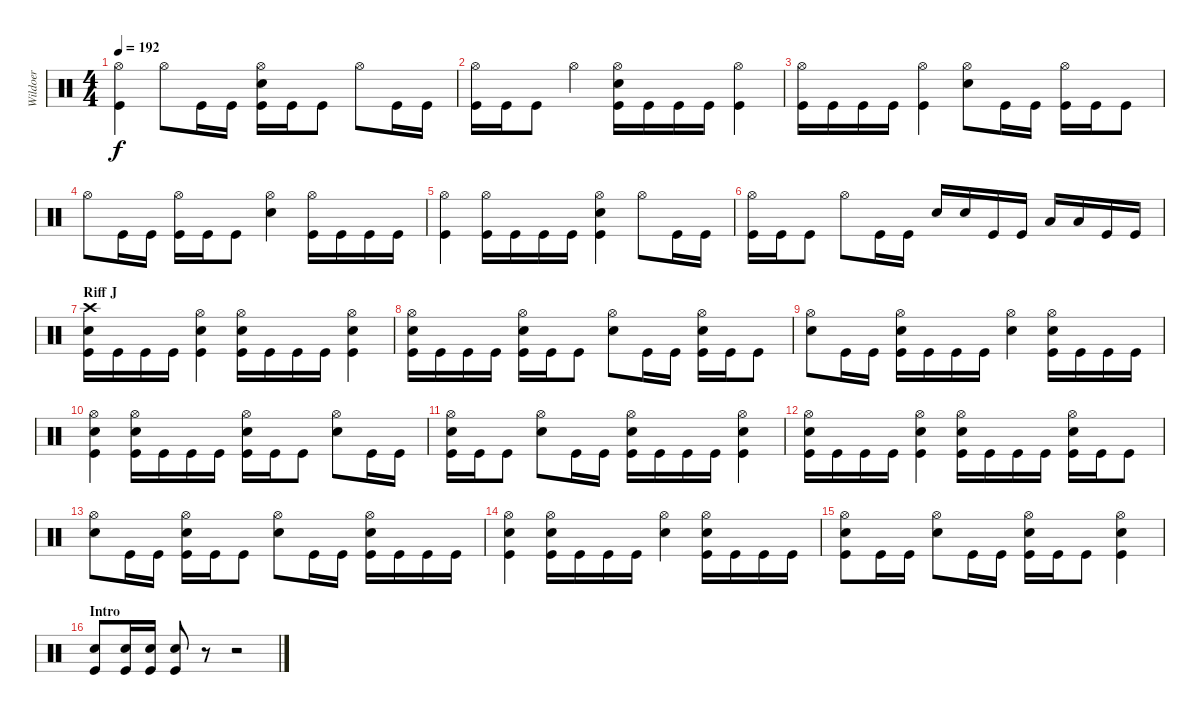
\track ("Wildoer" "Wildoer") {instrument percussion}
\staff {score}
\articulation defaults
\ts (4 4)
\tempo 192
\clef neutral
\ks c
("Hi-Hat (open)" "Kick (hit)").4{dy f} "Hi-Hat (open)".8 "Kick (hit)".16 "Kick (hit)".16 ("Hi-Hat (open)" "Electric Snare (hit)" "Kick (hit)").16 "Kick (hit)".16 "Kick (hit)".8 "Hi-Hat (open)".8 "Kick (hit)".16 "Kick (hit)".16 |
("Hi-Hat (open)" "Kick (hit)").16 "Kick (hit)".16 "Kick (hit)".8 "Hi-Hat (open)".4 ("Hi-Hat (open)" "Electric Snare (hit)" "Kick (hit)").16 "Kick (hit)".16 "Kick (hit)".16 "Kick (hit)".16 ("Hi-Hat (open)" "Kick (hit)").4 |
("Hi-Hat (open)" "Kick (hit)").16 "Kick (hit)".16 "Kick (hit)".16 "Kick (hit)".16 ("Hi-Hat (open)" "Kick (hit)").4 ("Hi-Hat (open)" "Electric Snare (hit)").8 "Kick (hit)".16 "Kick (hit)".16 ("Hi-Hat (open)" "Kick (hit)").16 "Kick (hit)".16 "Kick (hit)".8 |
"Hi-Hat (open)".8 "Kick (hit)".16 "Kick (hit)".16 ("Hi-Hat (open)" "Kick (hit)").16 "Kick (hit)".16 "Kick (hit)".8 ("Hi-Hat (open)" "Electric Snare (hit)").4 ("Hi-Hat (open)" "Kick (hit)").16 "Kick (hit)".16 "Kick (hit)".16 "Kick (hit)".16 |
("Hi-Hat (open)" "Kick (hit)").4 ("Hi-Hat (open)" "Kick (hit)").16 "Kick (hit)".16 "Kick (hit)".16 "Kick (hit)".16 ("Hi-Hat (open)" "Electric Snare (hit)" "Kick (hit)").4 "Hi-Hat (open)".8 "Kick (hit)".16 "Kick (hit)".16 |
("Hi-Hat (open)" "Kick (hit)").16 "Kick (hit)".16 "Kick (hit)".8 "Hi-Hat (open)".8 "Kick (hit)".16 "Kick (hit)".16 "Electric Snare (hit)".16 "Electric Snare (hit)".16 "Kick (hit)".16 "Kick (hit)".16 "Low Tom (hit)".16 "Low Tom (hit)".16 "Kick (hit)".16 "Kick (hit)".16 |
\section ("" "Riff J")
("Crash high (hit)" "Electric Snare (hit)" "Kick (hit)").16 "Kick (hit)".16 "Kick (hit)".16 "Kick (hit)".16 ("Hi-Hat (open)" "Electric Snare (hit)" "Kick (hit)").4 ("Hi-Hat (open)" "Electric Snare (hit)" "Kick (hit)").16 "Kick (hit)".16 "Kick (hit)".16 "Kick (hit)".16 ("Hi-Hat (open)" "Electric Snare (hit)" "Kick (hit)").4 |
("Hi-Hat (open)" "Electric Snare (hit)" "Kick (hit)").16 "Kick (hit)".16 "Kick (hit)".16 "Kick (hit)".16 ("Hi-Hat (open)" "Electric Snare (hit)" "Kick (hit)").16 "Kick (hit)".16 "Kick (hit)".8 ("Hi-Hat (open)" "Electric Snare (hit)").8 "Kick (hit)".16 "Kick (hit)".16 ("Hi-Hat (open)" "Electric Snare (hit)" "Kick (hit)").16 "Kick (hit)".16 "Kick (hit)".8 |
("Hi-Hat (open)" "Electric Snare (hit)").8 "Kick (hit)".16 "Kick (hit)".16 ("Hi-Hat (open)" "Electric Snare (hit)" "Kick (hit)").16 "Kick (hit)".16 "Kick (hit)".16 "Kick (hit)".16 ("Hi-Hat (open)" "Electric Snare (hit)").4 ("Hi-Hat (open)" "Electric Snare (hit)" "Kick (hit)").16 "Kick (hit)".16 "Kick (hit)".16 "Kick (hit)".16 |
("Hi-Hat (open)" "Electric Snare (hit)" "Kick (hit)").4 ("Hi-Hat (open)" "Electric Snare (hit)" "Kick (hit)").16 "Kick (hit)".16 "Kick (hit)".16 "Kick (hit)".16 ("Hi-Hat (open)" "Electric Snare (hit)" "Kick (hit)").16 "Kick (hit)".16 "Kick (hit)".8 ("Hi-Hat (open)" "Electric Snare (hit)").8 "Kick (hit)".16 "Kick (hit)".16 |
("Hi-Hat (open)" "Electric Snare (hit)" "Kick (hit)").16 "Kick (hit)".16 "Kick (hit)".8 ("Hi-Hat (open)" "Electric Snare (hit)").8 "Kick (hit)".16 "Kick (hit)".16 ("Hi-Hat (open)" "Electric Snare (hit)" "Kick (hit)").16 "Kick (hit)".16 "Kick (hit)".16 "Kick (hit)".16 ("Hi-Hat (open)" "Electric Snare (hit)" "Kick (hit)").4 |
("Hi-Hat (open)" "Electric Snare (hit)" "Kick (hit)").16 "Kick (hit)".16 "Kick (hit)".16 "Kick (hit)".16 ("Hi-Hat (open)" "Electric Snare (hit)" "Kick (hit)").4 ("Hi-Hat (open)" "Electric Snare (hit)" "Kick (hit)").16 "Kick (hit)".16 "Kick (hit)".16 "Kick (hit)".16 ("Hi-Hat (open)" "Electric Snare (hit)" "Kick (hit)").16 "Kick (hit)".16 "Kick (hit)".8 |
("Hi-Hat (open)" "Electric Snare (hit)").8 "Kick (hit)".16 "Kick (hit)".16 ("Hi-Hat (open)" "Electric Snare (hit)" "Kick (hit)").16 "Kick (hit)".16 "Kick (hit)".8 ("Hi-Hat (open)" "Electric Snare (hit)").8 "Kick (hit)".16 "Kick (hit)".16 ("Hi-Hat (open)" "Electric Snare (hit)" "Kick (hit)").16 "Kick (hit)".16 "Kick (hit)".16 "Kick (hit)".16 |
("Hi-Hat (open)" "Electric Snare (hit)" "Kick (hit)").4 ("Hi-Hat (open)" "Electric Snare (hit)" "Kick (hit)").16 "Kick (hit)".16 "Kick (hit)".16 "Kick (hit)".16 ("Hi-Hat (open)" "Electric Snare (hit)").4 ("Hi-Hat (open)" "Electric Snare (hit)" "Kick (hit)").16 "Kick (hit)".16 "Kick (hit)".16 "Kick (hit)".16 |
("Hi-Hat (open)" "Electric Snare (hit)" "Kick (hit)").8 "Kick (hit)".16 "Kick (hit)".16 ("Hi-Hat (open)" "Electric Snare (hit)").8 "Kick (hit)".16 "Kick (hit)".16 ("Hi-Hat (open)" "Electric Snare (hit)" "Kick (hit)").16 "Kick (hit)".16 "Kick (hit)".8 ("Hi-Hat (open)" "Electric Snare (hit)" "Kick (hit)").4 |
\section ("" "Intro")
("Electric Snare (hit)" "Kick (hit)").8 ("Electric Snare (hit)" "Kick (hit)").16 ("Electric Snare (hit)" "Kick (hit)").16 ("Electric Snare (hit)" "Kick (hit)").8 r.8 r.2
